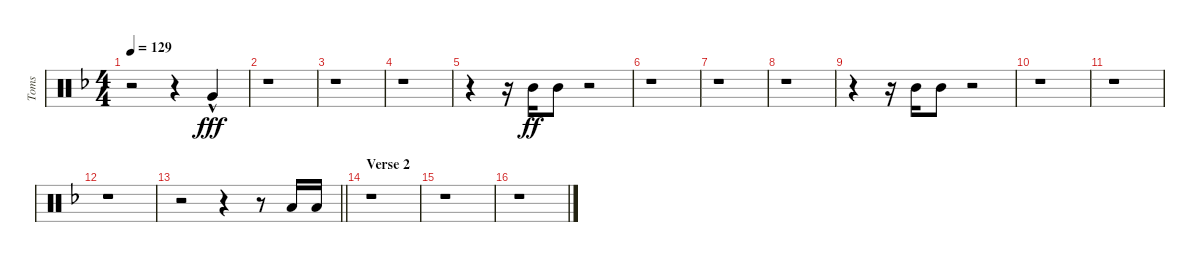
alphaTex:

\track ("Toms" "Toms") {instrument percussion}
\staff {score}
\articulation defaults
\ts (4 4)
\tempo 129
\clef neutral
\ks dminor
r.2{dy fff} r.4{volume 15 balance 4} "Very Low Tom (hit)"{hac}.4 |
r.1 |
r.1 |
r.1 |
r.4 r.16{balance 11} "Mid Tom (hit)".16{dy ff} "Mid Tom (hit)".8 r.2 |
r.1 |
r.1 |
r.1 |
r.4 r.16 "Mid Tom (hit)".16 "Mid Tom (hit)".8 r.2 |
r.1 |
r.1 |
r.1 |
\barLineRight lightlight
r.2 r.4 r.8 "Low Tom (hit)".16 "Low Tom (hit)".16 |
\section ("" "Verse 2")
r.1 |
r.1 |
r.1
